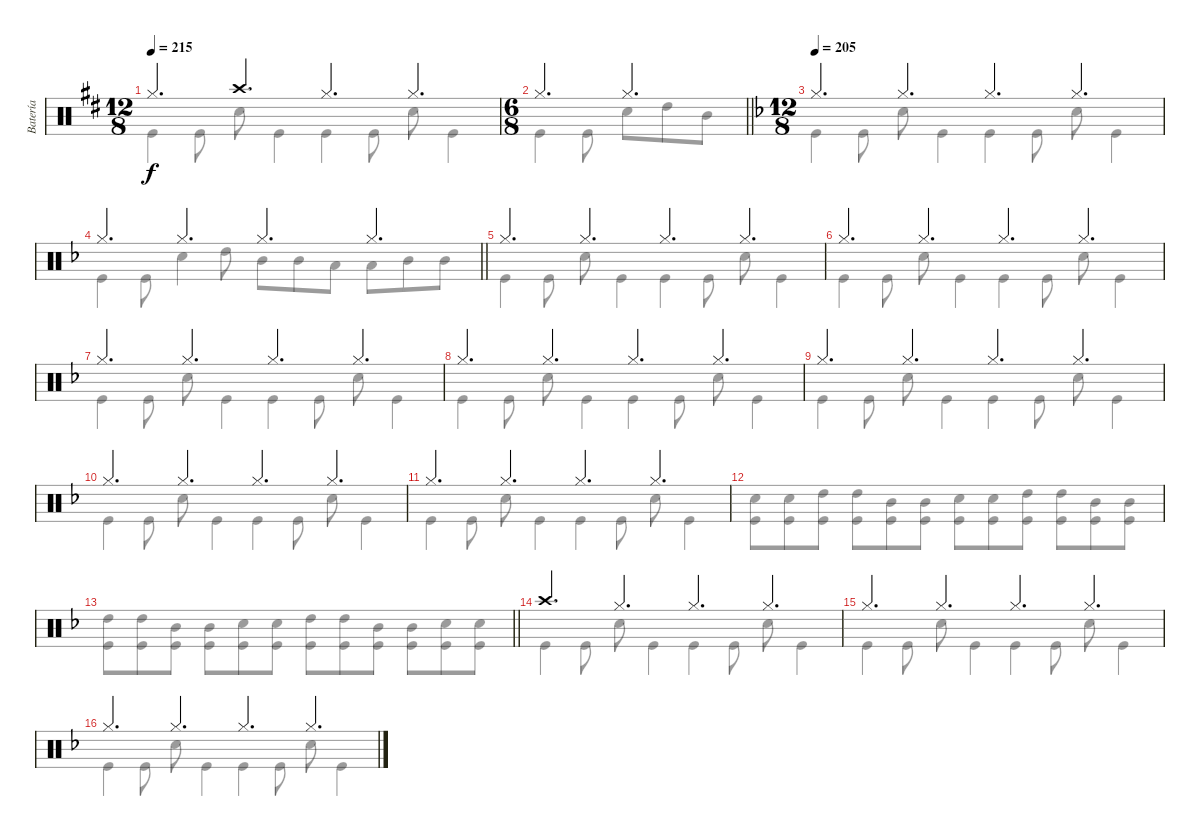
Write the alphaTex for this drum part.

\track ("Batería" "Batería") {instrument percussion}
\staff {score}
\articulation defaults
\voice
\ts (12 8)
\tempo 215
\clef neutral
\ks d "Hi-Hat (closed)".4{d dy f} "Crash high (hit)".4{d} "Hi-Hat (closed)".4{d} "Hi-Hat (closed)".4{d}
|
\ts (6 8)
\barLineRight lightlight "Hi-Hat (closed)".4{d} "Hi-Hat (closed)".4{d}
|
\ts (12 8)
\tempo 205
\ks dminor "Hi-Hat (closed)".4{d} "Hi-Hat (closed)".4{d} "Hi-Hat (closed)".4{d} "Hi-Hat (closed)".4{d}
|
\barLineRight lightlight "Hi-Hat (closed)".4{d} "Hi-Hat (closed)".4{d} "Hi-Hat (closed)".4{d} "Hi-Hat (closed)".4{d}
|
"Hi-Hat (closed)".4{d} "Hi-Hat (closed)".4{d} "Hi-Hat (closed)".4{d} "Hi-Hat (closed)".4{d} |
"Hi-Hat (closed)".4{d} "Hi-Hat (closed)".4{d} "Hi-Hat (closed)".4{d} "Hi-Hat (closed)".4{d} |
"Hi-Hat (closed)".4{d} "Hi-Hat (closed)".4{d} "Hi-Hat (closed)".4{d} "Hi-Hat (closed)".4{d} |
"Hi-Hat (closed)".4{d} "Hi-Hat (closed)".4{d} "Hi-Hat (closed)".4{d} "Hi-Hat (closed)".4{d} |
"Hi-Hat (closed)".4{d} "Hi-Hat (closed)".4{d} "Hi-Hat (closed)".4{d} "Hi-Hat (closed)".4{d} |
"Hi-Hat (closed)".4{d} "Hi-Hat (closed)".4{d} "Hi-Hat (closed)".4{d} "Hi-Hat (closed)".4{d} |
"Hi-Hat (closed)".4{d} "Hi-Hat (closed)".4{d} "Hi-Hat (closed)".4{d} "Hi-Hat (closed)".4{d} |
|
\barLineRight lightlight
|
"Crash high (hit)".4{d} "Hi-Hat (closed)".4{d} "Hi-Hat (closed)".4{d} "Hi-Hat (closed)".4{d} |
"Hi-Hat (closed)".4{d} "Hi-Hat (closed)".4{d} "Hi-Hat (closed)".4{d} "Hi-Hat (closed)".4{d} |
"Hi-Hat (closed)".4{d} "Hi-Hat (closed)".4{d} "Hi-Hat (closed)".4{d} "Hi-Hat (closed)".4{d}
\voice
\clef neutral
\ottava regular
\simile none
\ks d "Kick (hit)".4{dy f} "Kick (hit)".8 "Snare (hit) 2".8 "Kick (hit)".4 "Kick (hit)".4 "Kick (hit)".8 "Snare (hit) 2".8 "Kick (hit)".4
|
\barLineRight lightlight "Kick (hit)".4 "Kick (hit)".8 "Snare (hit) 2".8 "High Tom (hit)".8 "Mid Tom (hit)".8
|
\ks dminor "Kick (hit)".4 "Kick (hit)".8 "Snare (hit) 2".8 "Kick (hit)".4 "Kick (hit)".4 "Kick (hit)".8 "Snare (hit) 2".8 "Kick (hit)".4
|
\barLineRight lightlight "Kick (hit)".4 "Kick (hit)".8 "Snare (hit) 2".4 "High Tom (hit)".8 "Mid Tom (hit)".8 "Mid Tom (hit)".8 "Low Tom (hit)".8 "Low Tom (hit)".8 "Mid Tom (hit)".8 "Mid Tom (hit)".8
|
"Kick (hit)".4 "Kick (hit)".8 "Snare (hit) 2".8 "Kick (hit)".4 "Kick (hit)".4 "Kick (hit)".8 "Snare (hit) 2".8 "Kick (hit)".4 |
"Kick (hit)".4 "Kick (hit)".8 "Snare (hit) 2".8 "Kick (hit)".4 "Kick (hit)".4 "Kick (hit)".8 "Snare (hit) 2".8 "Kick (hit)".4 |
"Kick (hit)".4 "Kick (hit)".8 "Snare (hit) 2".8 "Kick (hit)".4 "Kick (hit)".4 "Kick (hit)".8 "Snare (hit) 2".8 "Kick (hit)".4 |
"Kick (hit)".4 "Kick (hit)".8 "Snare (hit) 2".8 "Kick (hit)".4 "Kick (hit)".4 "Kick (hit)".8 "Snare (hit) 2".8 "Kick (hit)".4 |
"Kick (hit)".4 "Kick (hit)".8 "Snare (hit) 2".8 "Kick (hit)".4 "Kick (hit)".4 "Kick (hit)".8 "Snare (hit) 2".8 "Kick (hit)".4 |
"Kick (hit)".4 "Kick (hit)".8 "Snare (hit) 2".8 "Kick (hit)".4 "Kick (hit)".4 "Kick (hit)".8 "Snare (hit) 2".8 "Kick (hit)".4 |
"Kick (hit)".4 "Kick (hit)".8 "Snare (hit) 2".8 "Kick (hit)".4 "Kick (hit)".4 "Kick (hit)".8 "Snare (hit) 2".8 "Kick (hit)".4 |
("Snare (hit) 2" "Kick (hit)").8 ("Snare (hit) 2" "Kick (hit)").8 ("High Tom (hit)" "Kick (hit)").8 ("High Tom (hit)" "Kick (hit)").8 ("Mid Tom (hit)" "Kick (hit)").8 ("Mid Tom (hit)" "Kick (hit)").8 ("Snare (hit) 2" "Kick (hit)").8 ("Snare (hit) 2" "Kick (hit)").8 ("High Tom (hit)" "Kick (hit)").8 ("High Tom (hit)" "Kick (hit)").8 ("Mid Tom (hit)" "Kick (hit)").8 ("Mid Tom (hit)" "Kick (hit)").8 |
\barLineRight lightlight
("High Tom (hit)" "Kick (hit)").8 ("High Tom (hit)" "Kick (hit)").8 ("Mid Tom (hit)" "Kick (hit)").8 ("Mid Tom (hit)" "Kick (hit)").8 ("Snare (hit) 2" "Kick (hit)").8 ("Snare (hit) 2" "Kick (hit)").8 ("High Tom (hit)" "Kick (hit)").8 ("High Tom (hit)" "Kick (hit)").8 ("Mid Tom (hit)" "Kick (hit)").8 ("Mid Tom (hit)" "Kick (hit)").8 ("Snare (hit) 2" "Kick (hit)").8 ("Snare (hit) 2" "Kick (hit)").8 |
"Kick (hit)".4 "Kick (hit)".8 "Snare (hit) 2".8 "Kick (hit)".4 "Kick (hit)".4 "Kick (hit)".8 "Snare (hit) 2".8 "Kick (hit)".4 |
"Kick (hit)".4 "Kick (hit)".8 "Snare (hit) 2".8 "Kick (hit)".4 "Kick (hit)".4 "Kick (hit)".8 "Snare (hit) 2".8 "Kick (hit)".4 |
"Kick (hit)".4 "Kick (hit)".8 "Snare (hit) 2".8 "Kick (hit)".4 "Kick (hit)".4 "Kick (hit)".8 "Snare (hit) 2".8 "Kick (hit)".4
